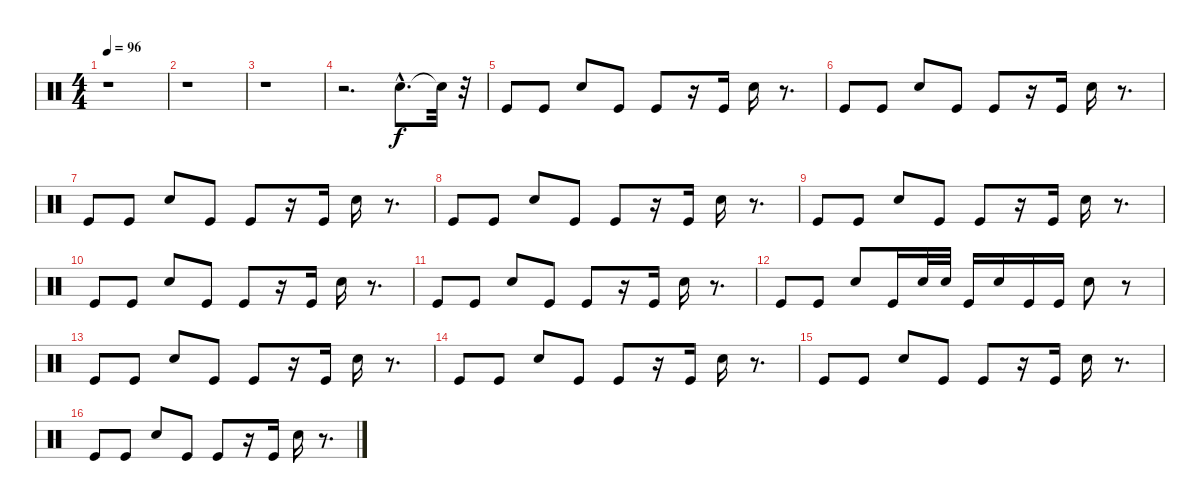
\track "" {instrument percussion}
\staff {score}
\articulation defaults
\ts (4 4)
\tempo 96
\clef neutral
\ks c
r.1{dy f} |
r.1 |
r.1 |
r.2{d} "Snare (hit) 2"{hac}.8{d} "Snare (hit)"{t}.32 r.32 |
"Kick (hit)".8 "Kick (hit)".8 "Snare (hit) 2".8 "Kick (hit)".8 "Kick (hit)".8 r.16 "Kick (hit)".16 "Snare (hit) 2".16 r.8{d} |
"Kick (hit)".8 "Kick (hit)".8 "Snare (hit) 2".8 "Kick (hit)".8 "Kick (hit)".8 r.16 "Kick (hit)".16 "Snare (hit) 2".16 r.8{d} |
"Kick (hit)".8 "Kick (hit)".8 "Snare (hit) 2".8 "Kick (hit)".8 "Kick (hit)".8 r.16 "Kick (hit)".16 "Snare (hit) 2".16 r.8{d} |
"Kick (hit)".8 "Kick (hit)".8 "Snare (hit) 2".8 "Kick (hit)".8 "Kick (hit)".8 r.16 "Kick (hit)".16 "Snare (hit) 2".16 r.8{d} |
"Kick (hit)".8 "Kick (hit)".8 "Snare (hit) 2".8 "Kick (hit)".8 "Kick (hit)".8 r.16 "Kick (hit)".16 "Snare (hit) 2".16 r.8{d} |
"Kick (hit)".8 "Kick (hit)".8 "Snare (hit) 2".8 "Kick (hit)".8 "Kick (hit)".8 r.16 "Kick (hit)".16 "Snare (hit) 2".16 r.8{d} |
"Kick (hit)".8 "Kick (hit)".8 "Snare (hit) 2".8 "Kick (hit)".8 "Kick (hit)".8 r.16 "Kick (hit)".16 "Snare (hit) 2".16 r.8{d} |
"Kick (hit)".8 "Kick (hit)".8 "Snare (hit) 2".8 "Kick (hit)".16 "Snare (hit) 2".32 "Snare (hit) 2".32 "Kick (hit)".16 "Snare (hit) 2".16 "Kick (hit)".16 "Kick (hit)".16 "Snare (hit) 2".8 r.8 |
"Kick (hit)".8 "Kick (hit)".8 "Snare (hit) 2".8 "Kick (hit)".8 "Kick (hit)".8 r.16 "Kick (hit)".16 "Snare (hit) 2".16 r.8{d} |
"Kick (hit)".8 "Kick (hit)".8 "Snare (hit) 2".8 "Kick (hit)".8 "Kick (hit)".8 r.16 "Kick (hit)".16 "Snare (hit) 2".16 r.8{d} |
"Kick (hit)".8 "Kick (hit)".8 "Snare (hit) 2".8 "Kick (hit)".8 "Kick (hit)".8 r.16 "Kick (hit)".16 "Snare (hit) 2".16 r.8{d} |
"Kick (hit)".8 "Kick (hit)".8 "Snare (hit) 2".8 "Kick (hit)".8 "Kick (hit)".8 r.16 "Kick (hit)".16 "Snare (hit) 2".16 r.8{d}
